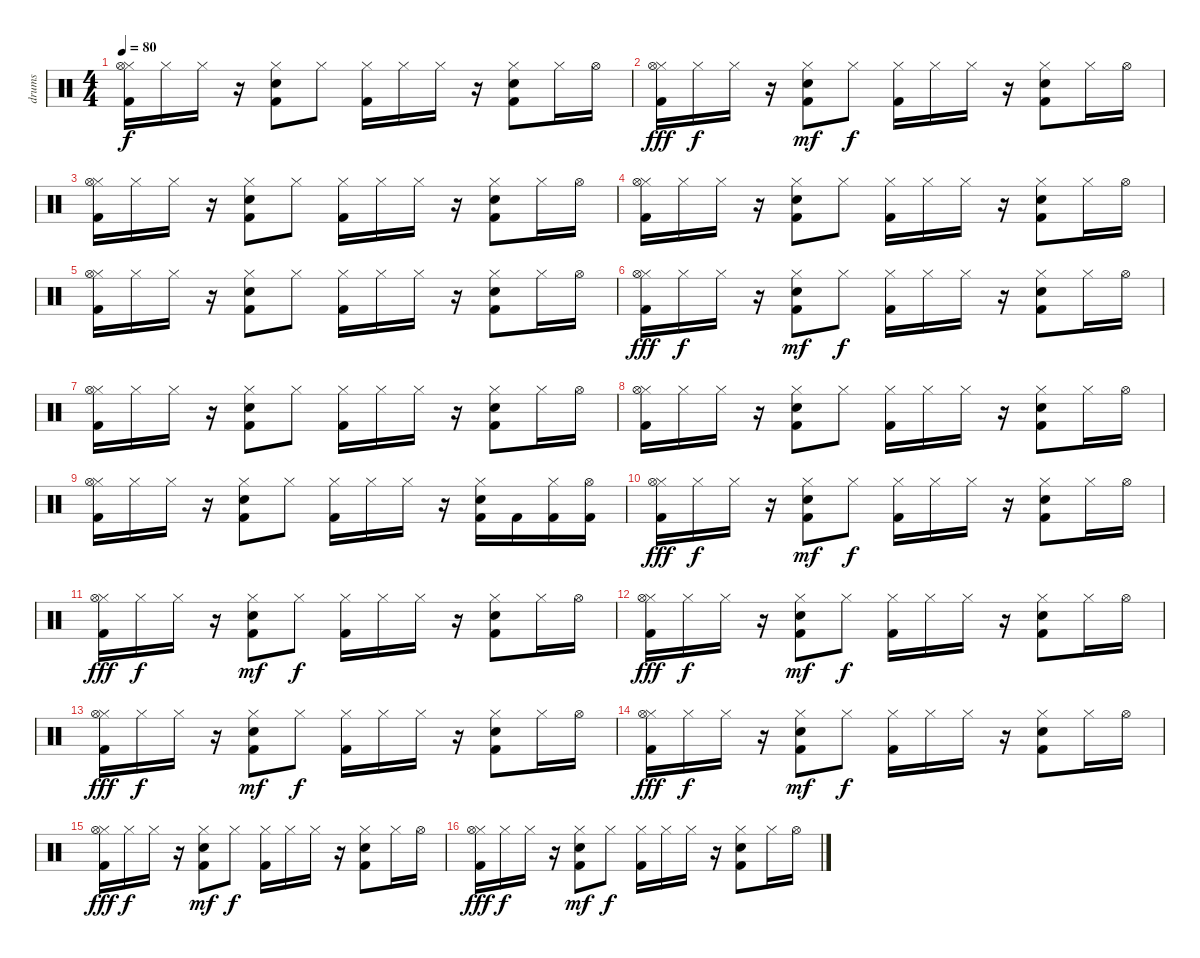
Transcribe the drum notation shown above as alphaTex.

\track ("drums" "drums") {instrument percussion}
\staff {score}
\articulation defaults
\ts (4 4)
\tempo 80
\clef neutral
\ks c
("Hi-Hat (closed)" "Hi-Hat (open)" "Kick (hit) 2").16{dy f} "Hi-Hat (closed)".16 "Hi-Hat (closed)".16 r.16 ("Kick (hit) 2" "Snare (hit) 2" "Hi-Hat (closed)").8 "Hi-Hat (closed)".8 ("Kick (hit) 2" "Hi-Hat (closed)").16 "Hi-Hat (closed)".16 "Hi-Hat (closed)".16 r.16 ("Kick (hit) 2" "Hi-Hat (closed)" "Snare (hit) 2").8 "Hi-Hat (closed)".16 "Hi-Hat (open)".16 |
("Hi-Hat (closed)" "Hi-Hat (open)" "Kick (hit) 2").16{dy fff} "Hi-Hat (closed)".16{dy f} "Hi-Hat (closed)".16 r.16 ("Kick (hit) 2" "Snare (hit) 2" "Hi-Hat (closed)").8{dy mf} "Hi-Hat (closed)".8{dy f} ("Kick (hit) 2" "Hi-Hat (closed)").16 "Hi-Hat (closed)".16 "Hi-Hat (closed)".16 r.16 ("Kick (hit) 2" "Hi-Hat (closed)" "Snare (hit) 2").8 "Hi-Hat (closed)".16 "Hi-Hat (open)".16 |
("Hi-Hat (closed)" "Hi-Hat (open)" "Kick (hit) 2").16 "Hi-Hat (closed)".16 "Hi-Hat (closed)".16 r.16 ("Kick (hit) 2" "Snare (hit) 2" "Hi-Hat (closed)").8 "Hi-Hat (closed)".8 ("Kick (hit) 2" "Hi-Hat (closed)").16 "Hi-Hat (closed)".16 "Hi-Hat (closed)".16 r.16 ("Kick (hit) 2" "Hi-Hat (closed)" "Snare (hit) 2").8 "Hi-Hat (closed)".16 "Hi-Hat (open)".16 |
("Hi-Hat (closed)" "Hi-Hat (open)" "Kick (hit) 2").16 "Hi-Hat (closed)".16 "Hi-Hat (closed)".16 r.16 ("Kick (hit) 2" "Snare (hit) 2" "Hi-Hat (closed)").8 "Hi-Hat (closed)".8 ("Kick (hit) 2" "Hi-Hat (closed)").16 "Hi-Hat (closed)".16 "Hi-Hat (closed)".16 r.16 ("Kick (hit) 2" "Hi-Hat (closed)" "Snare (hit) 2").8 "Hi-Hat (closed)".16 "Hi-Hat (open)".16 |
("Hi-Hat (closed)" "Hi-Hat (open)" "Kick (hit) 2").16 "Hi-Hat (closed)".16 "Hi-Hat (closed)".16 r.16 ("Kick (hit) 2" "Snare (hit) 2" "Hi-Hat (closed)").8 "Hi-Hat (closed)".8 ("Kick (hit) 2" "Hi-Hat (closed)").16 "Hi-Hat (closed)".16 "Hi-Hat (closed)".16 r.16 ("Kick (hit) 2" "Hi-Hat (closed)" "Snare (hit) 2").8 "Hi-Hat (closed)".16 "Hi-Hat (open)".16 |
("Hi-Hat (closed)" "Hi-Hat (open)" "Kick (hit) 2").16{dy fff} "Hi-Hat (closed)".16{dy f} "Hi-Hat (closed)".16 r.16 ("Kick (hit) 2" "Snare (hit) 2" "Hi-Hat (closed)").8{dy mf} "Hi-Hat (closed)".8{dy f} ("Kick (hit) 2" "Hi-Hat (closed)").16 "Hi-Hat (closed)".16 "Hi-Hat (closed)".16 r.16 ("Kick (hit) 2" "Hi-Hat (closed)" "Snare (hit) 2").8 "Hi-Hat (closed)".16 "Hi-Hat (open)".16 |
("Hi-Hat (closed)" "Hi-Hat (open)" "Kick (hit) 2").16 "Hi-Hat (closed)".16 "Hi-Hat (closed)".16 r.16 ("Kick (hit) 2" "Snare (hit) 2" "Hi-Hat (closed)").8 "Hi-Hat (closed)".8 ("Kick (hit) 2" "Hi-Hat (closed)").16 "Hi-Hat (closed)".16 "Hi-Hat (closed)".16 r.16 ("Kick (hit) 2" "Hi-Hat (closed)" "Snare (hit) 2").8 "Hi-Hat (closed)".16 "Hi-Hat (open)".16 |
("Hi-Hat (closed)" "Hi-Hat (open)" "Kick (hit) 2").16 "Hi-Hat (closed)".16 "Hi-Hat (closed)".16 r.16 ("Kick (hit) 2" "Snare (hit) 2" "Hi-Hat (closed)").8 "Hi-Hat (closed)".8 ("Kick (hit) 2" "Hi-Hat (closed)").16 "Hi-Hat (closed)".16 "Hi-Hat (closed)".16 r.16 ("Kick (hit) 2" "Hi-Hat (closed)" "Snare (hit) 2").8 "Hi-Hat (closed)".16 "Hi-Hat (open)".16 |
("Hi-Hat (closed)" "Hi-Hat (open)" "Kick (hit) 2").16 "Hi-Hat (closed)".16 "Hi-Hat (closed)".16 r.16 ("Kick (hit) 2" "Snare (hit) 2" "Hi-Hat (closed)").8 "Hi-Hat (closed)".8 ("Kick (hit) 2" "Hi-Hat (closed)").16 "Hi-Hat (closed)".16 "Hi-Hat (closed)".16 r.16 ("Kick (hit) 2" "Hi-Hat (closed)" "Snare (hit) 2").16 "Kick (hit) 2".16 ("Kick (hit) 2" "Hi-Hat (closed)").16 ("Kick (hit) 2" "Hi-Hat (open)").16 |
("Hi-Hat (closed)" "Hi-Hat (open)" "Kick (hit) 2").16{dy fff} "Hi-Hat (closed)".16{dy f} "Hi-Hat (closed)".16 r.16 ("Kick (hit) 2" "Snare (hit) 2" "Hi-Hat (closed)").8{dy mf} "Hi-Hat (closed)".8{dy f} ("Kick (hit) 2" "Hi-Hat (closed)").16 "Hi-Hat (closed)".16 "Hi-Hat (closed)".16 r.16 ("Kick (hit) 2" "Hi-Hat (closed)" "Snare (hit) 2").8 "Hi-Hat (closed)".16 "Hi-Hat (open)".16 |
("Hi-Hat (closed)" "Hi-Hat (open)" "Kick (hit) 2").16{dy fff} "Hi-Hat (closed)".16{dy f} "Hi-Hat (closed)".16 r.16 ("Kick (hit) 2" "Snare (hit) 2" "Hi-Hat (closed)").8{dy mf} "Hi-Hat (closed)".8{dy f} ("Kick (hit) 2" "Hi-Hat (closed)").16 "Hi-Hat (closed)".16 "Hi-Hat (closed)".16 r.16 ("Kick (hit) 2" "Hi-Hat (closed)" "Snare (hit) 2").8 "Hi-Hat (closed)".16 "Hi-Hat (open)".16 |
("Hi-Hat (closed)" "Hi-Hat (open)" "Kick (hit) 2").16{dy fff} "Hi-Hat (closed)".16{dy f} "Hi-Hat (closed)".16 r.16 ("Kick (hit) 2" "Snare (hit) 2" "Hi-Hat (closed)").8{dy mf} "Hi-Hat (closed)".8{dy f} ("Kick (hit) 2" "Hi-Hat (closed)").16 "Hi-Hat (closed)".16 "Hi-Hat (closed)".16 r.16 ("Kick (hit) 2" "Hi-Hat (closed)" "Snare (hit) 2").8 "Hi-Hat (closed)".16 "Hi-Hat (open)".16 |
("Hi-Hat (closed)" "Hi-Hat (open)" "Kick (hit) 2").16{dy fff} "Hi-Hat (closed)".16{dy f} "Hi-Hat (closed)".16 r.16 ("Kick (hit) 2" "Snare (hit) 2" "Hi-Hat (closed)").8{dy mf} "Hi-Hat (closed)".8{dy f} ("Kick (hit) 2" "Hi-Hat (closed)").16 "Hi-Hat (closed)".16 "Hi-Hat (closed)".16 r.16 ("Kick (hit) 2" "Hi-Hat (closed)" "Snare (hit) 2").8 "Hi-Hat (closed)".16 "Hi-Hat (open)".16 |
("Hi-Hat (closed)" "Hi-Hat (open)" "Kick (hit) 2").16{dy fff} "Hi-Hat (closed)".16{dy f} "Hi-Hat (closed)".16 r.16 ("Kick (hit) 2" "Snare (hit) 2" "Hi-Hat (closed)").8{dy mf} "Hi-Hat (closed)".8{dy f} ("Kick (hit) 2" "Hi-Hat (closed)").16 "Hi-Hat (closed)".16 "Hi-Hat (closed)".16 r.16 ("Kick (hit) 2" "Hi-Hat (closed)" "Snare (hit) 2").8 "Hi-Hat (closed)".16 "Hi-Hat (open)".16 |
("Hi-Hat (closed)" "Hi-Hat (open)" "Kick (hit) 2").16{dy fff} "Hi-Hat (closed)".16{dy f} "Hi-Hat (closed)".16 r.16 ("Kick (hit) 2" "Snare (hit) 2" "Hi-Hat (closed)").8{dy mf} "Hi-Hat (closed)".8{dy f} ("Kick (hit) 2" "Hi-Hat (closed)").16 "Hi-Hat (closed)".16 "Hi-Hat (closed)".16 r.16 ("Kick (hit) 2" "Hi-Hat (closed)" "Snare (hit) 2").8 "Hi-Hat (closed)".16 "Hi-Hat (open)".16 |
("Hi-Hat (closed)" "Hi-Hat (open)" "Kick (hit) 2").16{dy fff} "Hi-Hat (closed)".16{dy f} "Hi-Hat (closed)".16 r.16 ("Kick (hit) 2" "Snare (hit) 2" "Hi-Hat (closed)").8{dy mf} "Hi-Hat (closed)".8{dy f} ("Kick (hit) 2" "Hi-Hat (closed)").16 "Hi-Hat (closed)".16 "Hi-Hat (closed)".16 r.16 ("Kick (hit) 2" "Hi-Hat (closed)" "Snare (hit) 2").8 "Hi-Hat (closed)".16 "Hi-Hat (open)".16
